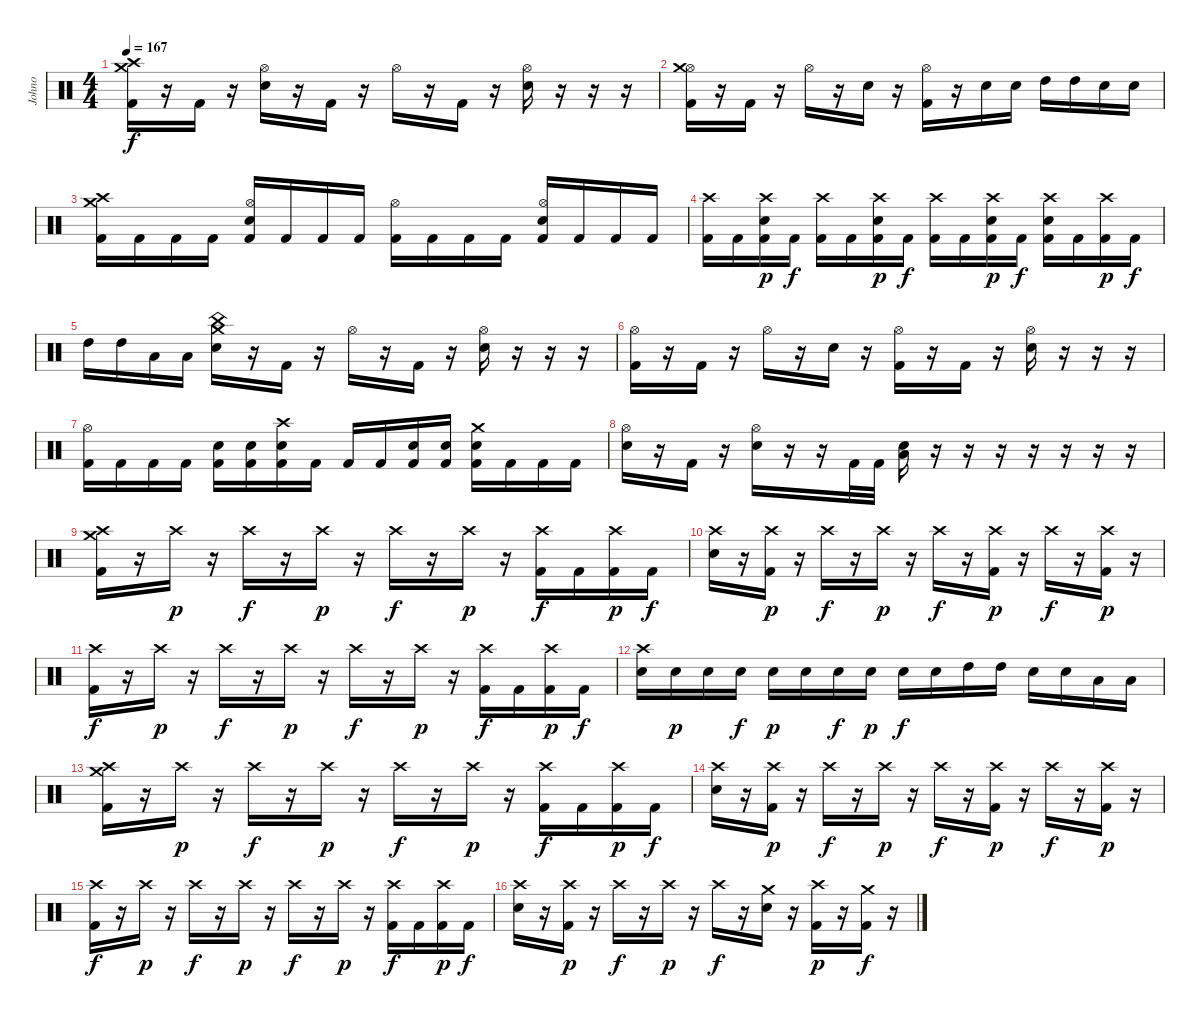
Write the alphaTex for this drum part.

\track ("Johno" "Johno") {instrument percussion}
\staff {score}
\articulation defaults
\ts (4 4)
\tempo 167
\clef neutral
\ks c
("Crash high (hit)" "Crash medium (hit)" "Kick (hit) 2").16{dy f} r.16 "Kick (hit) 2".16 r.16 ("Hi-Hat (open)" "Electric Snare (hit)").16 r.16 "Kick (hit) 2".16 r.16 "Hi-Hat (open)".16 r.16 "Kick (hit) 2".16 r.16 ("Hi-Hat (open)" "Electric Snare (hit)").16 r.16 r.16 r.16 |
("Hi-Hat (open)" "Crash medium (hit)" "Kick (hit) 2").16 r.16 "Kick (hit) 2".16 r.16 "Hi-Hat (open)".16 r.16 "Electric Snare (hit)".16 r.16 ("Hi-Hat (open)" "Kick (hit) 2").16 r.16 "Electric Snare (hit)".16 "Electric Snare (hit)".16 "High Tom (hit)".16 "High Tom (hit)".16 "Electric Snare (hit)".16 "Electric Snare (hit)".16 |
("Crash high (hit)" "Crash medium (hit)" "Kick (hit) 2").16 "Kick (hit) 2".16 "Kick (hit) 2".16 "Kick (hit) 2".16 ("Hi-Hat (open)" "Electric Snare (hit)" "Kick (hit) 2").16 "Kick (hit) 2".16 "Kick (hit) 2".16 "Kick (hit) 2".16 ("Hi-Hat (open)" "Kick (hit) 2").16 "Kick (hit) 2".16 "Kick (hit) 2".16 "Kick (hit) 2".16 ("Hi-Hat (open)" "Electric Snare (hit)" "Kick (hit) 2").16 "Kick (hit) 2".16 "Kick (hit) 2".16 "Kick (hit) 2".16 |
("Crash high (hit)" "Kick (hit) 2").16 "Kick (hit) 2".16 ("Crash high (hit)" "Electric Snare (hit)" "Kick (hit) 2").16{dy p} "Kick (hit) 2".16{dy f} ("Crash high (hit)" "Kick (hit) 2").16 "Kick (hit) 2".16 ("Crash high (hit)" "Electric Snare (hit)" "Kick (hit) 2").16{dy p} "Kick (hit) 2".16{dy f} ("Crash high (hit)" "Kick (hit) 2").16 "Kick (hit) 2".16 ("Crash high (hit)" "Electric Snare (hit)" "Kick (hit) 2").16{dy p} "Kick (hit) 2".16{dy f} ("Crash high (hit)" "Electric Snare (hit)" "Kick (hit) 2").16 "Kick (hit) 2".16 ("Crash high (hit)" "Kick (hit) 2").16{dy p} "Kick (hit) 2".16{dy f} |
"High Tom (hit)".16 "High Tom (hit)".16 "Low Floor Tom (hit)".16 "Low Floor Tom (hit)".16 ("Crash medium (hit)" "China (hit)" "Electric Snare (hit)").16 r.16 "Kick (hit) 2".16 r.16 "Hi-Hat (open)".16 r.16 "Kick (hit) 2".16 r.16 ("Hi-Hat (open)" "Electric Snare (hit)").16 r.16 r.16 r.16 |
("Hi-Hat (open)" "Kick (hit) 2").16 r.16 "Kick (hit) 2".16 r.16 "Hi-Hat (open)".16 r.16 "Electric Snare (hit)".16 r.16 ("Hi-Hat (open)" "Kick (hit) 2").16 r.16 "Kick (hit) 2".16 r.16 ("Hi-Hat (open)" "Electric Snare (hit)").16 r.16 r.16 r.16 |
("Hi-Hat (open)" "Kick (hit) 2").16 "Kick (hit) 2".16 "Kick (hit) 2".16 "Kick (hit) 2".16 ("Electric Snare (hit)" "Kick (hit) 2").16 ("Electric Snare (hit)" "Kick (hit) 2").16 ("Crash high (hit)" "Electric Snare (hit)" "Kick (hit) 2").16 "Kick (hit) 2".16 "Kick (hit) 2".16 "Kick (hit) 2".16 ("Electric Snare (hit)" "Kick (hit) 2").16 ("Electric Snare (hit)" "Kick (hit) 2").16 ("Crash medium (hit)" "Electric Snare (hit)" "Kick (hit) 2").16 "Kick (hit) 2".16 "Kick (hit) 2".16 "Kick (hit) 2".16 |
("Hi-Hat (open)" "Electric Snare (hit)").16 r.16 "Kick (hit) 2".16 r.16 ("Hi-Hat (open)" "Electric Snare (hit)").16 r.16 r.16 "Kick (hit) 2".32 "Kick (hit) 2".32 ("Low Floor Tom (hit)" "Electric Snare (hit)").16 r.16 r.16 r.16 r.16 r.16 r.16 r.16 |
("Crash medium (hit)" "Crash high (hit)" "Kick (hit) 2").16 r.16 "Crash high (hit)".16{dy p} r.16 "Crash high (hit)".16{dy f} r.16 "Crash high (hit)".16{dy p} r.16 "Crash high (hit)".16{dy f} r.16 "Crash high (hit)".16{dy p} r.16 ("Crash high (hit)" "Kick (hit) 2").16{dy f} "Kick (hit) 2".16 ("Crash high (hit)" "Kick (hit) 2").16{dy p} "Kick (hit) 2".16{dy f} |
("Crash high (hit)" "Electric Snare (hit)").16 r.16 ("Crash high (hit)" "Kick (hit) 2").16{dy p} r.16 "Crash high (hit)".16{dy f} r.16 "Crash high (hit)".16{dy p} r.16 "Crash high (hit)".16{dy f} r.16 ("Crash high (hit)" "Kick (hit) 2").16{dy p} r.16 "Crash high (hit)".16{dy f} r.16 ("Crash high (hit)" "Kick (hit) 2").16{dy p} r.16 |
("Crash high (hit)" "Kick (hit) 2").16{dy f} r.16 "Crash high (hit)".16{dy p} r.16 "Crash high (hit)".16{dy f} r.16 "Crash high (hit)".16{dy p} r.16 "Crash high (hit)".16{dy f} r.16 "Crash high (hit)".16{dy p} r.16 ("Crash high (hit)" "Kick (hit) 2").16{dy f} "Kick (hit) 2".16 ("Crash high (hit)" "Kick (hit) 2").16{dy p} "Kick (hit) 2".16{dy f} |
("Crash high (hit)" "Electric Snare (hit)").16 "Electric Snare (hit)".16{dy p} "Electric Snare (hit)".16 "Electric Snare (hit)".16{dy f} "Electric Snare (hit)".16{dy p} "Electric Snare (hit)".16 "Electric Snare (hit)".16{dy f} "Electric Snare (hit)".16{dy p} "Electric Snare (hit)".16{dy f} "Electric Snare (hit)".16 "High Tom (hit)".16 "High Tom (hit)".16 "Electric Snare (hit)".16 "Electric Snare (hit)".16 "Low Floor Tom (hit)".16 "Low Floor Tom (hit)".16 |
("Crash medium (hit)" "Crash high (hit)" "Kick (hit) 2").16 r.16 "Crash high (hit)".16{dy p} r.16 "Crash high (hit)".16{dy f} r.16 "Crash high (hit)".16{dy p} r.16 "Crash high (hit)".16{dy f} r.16 "Crash high (hit)".16{dy p} r.16 ("Crash high (hit)" "Kick (hit) 2").16{dy f} "Kick (hit) 2".16 ("Crash high (hit)" "Kick (hit) 2").16{dy p} "Kick (hit) 2".16{dy f} |
("Crash high (hit)" "Electric Snare (hit)").16 r.16 ("Crash high (hit)" "Kick (hit) 2").16{dy p} r.16 "Crash high (hit)".16{dy f} r.16 "Crash high (hit)".16{dy p} r.16 "Crash high (hit)".16{dy f} r.16 ("Crash high (hit)" "Kick (hit) 2").16{dy p} r.16 "Crash high (hit)".16{dy f} r.16 ("Crash high (hit)" "Kick (hit) 2").16{dy p} r.16 |
("Crash high (hit)" "Kick (hit) 2").16{dy f} r.16 "Crash high (hit)".16{dy p} r.16 "Crash high (hit)".16{dy f} r.16 "Crash high (hit)".16{dy p} r.16 "Crash high (hit)".16{dy f} r.16 "Crash high (hit)".16{dy p} r.16 ("Crash high (hit)" "Kick (hit) 2").16{dy f} "Kick (hit) 2".16 ("Crash high (hit)" "Kick (hit) 2").16{dy p} "Kick (hit) 2".16{dy f} |
("Crash high (hit)" "Electric Snare (hit)").16 r.16 ("Crash high (hit)" "Kick (hit) 2").16{dy p} r.16 "Crash high (hit)".16{dy f} r.16 "Crash high (hit)".16{dy p} r.16 "Crash high (hit)".16{dy f} r.16 ("Crash medium (hit)" "Electric Snare (hit)").16 r.16 ("Crash high (hit)" "Kick (hit) 2").16{dy p} r.16 ("Crash medium (hit)" "Kick (hit) 2").16{dy f} r.16
